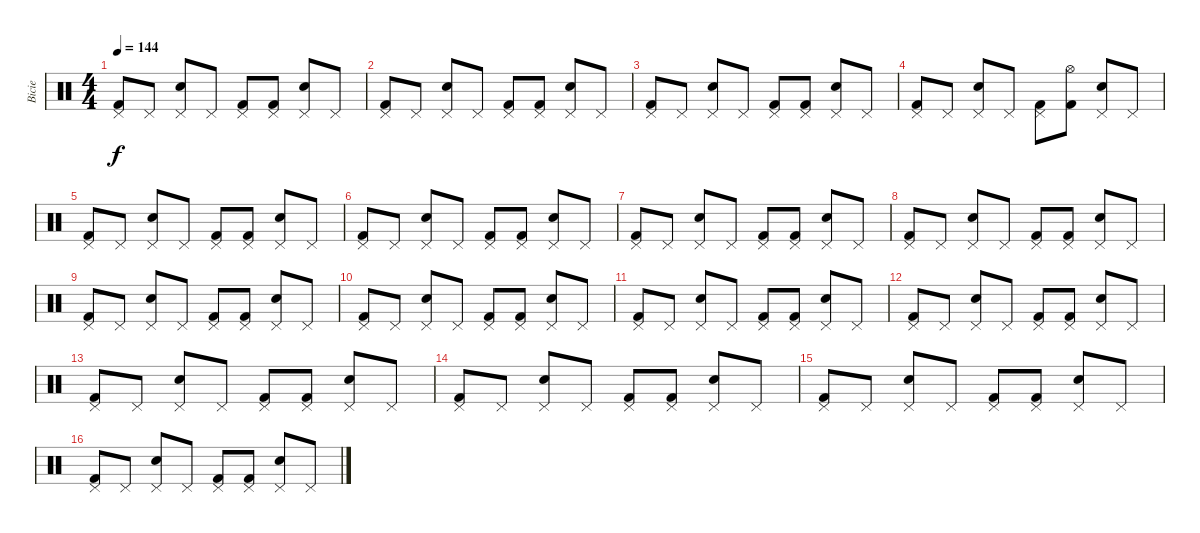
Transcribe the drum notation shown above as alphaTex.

\track ("Bicie" "Bicie") {instrument percussion}
\staff {score}
\articulation defaults
\ts (4 4)
\tempo 144
\clef neutral
\ks c
("Pedal Hi-Hat (hit)" "Kick (hit) 2").8{dy f} "Pedal Hi-Hat (hit)".8 ("Pedal Hi-Hat (hit)" "Snare (hit) 2").8 "Pedal Hi-Hat (hit)".8 ("Pedal Hi-Hat (hit)" "Kick (hit) 2").8 ("Pedal Hi-Hat (hit)" "Kick (hit) 2").8 ("Pedal Hi-Hat (hit)" "Snare (hit) 2").8 "Pedal Hi-Hat (hit)".8 |
("Pedal Hi-Hat (hit)" "Kick (hit) 2").8 "Pedal Hi-Hat (hit)".8 ("Pedal Hi-Hat (hit)" "Snare (hit) 2").8 "Pedal Hi-Hat (hit)".8 ("Pedal Hi-Hat (hit)" "Kick (hit) 2").8 ("Pedal Hi-Hat (hit)" "Kick (hit) 2").8 ("Pedal Hi-Hat (hit)" "Snare (hit) 2").8 "Pedal Hi-Hat (hit)".8 |
("Pedal Hi-Hat (hit)" "Kick (hit) 2").8 "Pedal Hi-Hat (hit)".8 ("Pedal Hi-Hat (hit)" "Snare (hit) 2").8 "Pedal Hi-Hat (hit)".8 ("Pedal Hi-Hat (hit)" "Kick (hit) 2").8 ("Pedal Hi-Hat (hit)" "Kick (hit) 2").8 ("Pedal Hi-Hat (hit)" "Snare (hit) 2").8 "Pedal Hi-Hat (hit)".8 |
("Pedal Hi-Hat (hit)" "Kick (hit) 2").8 "Pedal Hi-Hat (hit)".8 ("Pedal Hi-Hat (hit)" "Snare (hit) 2").8 "Pedal Hi-Hat (hit)".8 ("Pedal Hi-Hat (hit)" "Kick (hit) 2").8 ("Hi-Hat (open)" "Kick (hit) 2").8 ("Pedal Hi-Hat (hit)" "Snare (hit) 2").8 "Pedal Hi-Hat (hit)".8 |
("Pedal Hi-Hat (hit)" "Kick (hit) 2").8 "Pedal Hi-Hat (hit)".8 ("Pedal Hi-Hat (hit)" "Snare (hit) 2").8 "Pedal Hi-Hat (hit)".8 ("Pedal Hi-Hat (hit)" "Kick (hit) 2").8 ("Pedal Hi-Hat (hit)" "Kick (hit) 2").8 ("Pedal Hi-Hat (hit)" "Snare (hit) 2").8 "Pedal Hi-Hat (hit)".8 |
("Pedal Hi-Hat (hit)" "Kick (hit) 2").8 "Pedal Hi-Hat (hit)".8 ("Pedal Hi-Hat (hit)" "Snare (hit) 2").8 "Pedal Hi-Hat (hit)".8 ("Pedal Hi-Hat (hit)" "Kick (hit) 2").8 ("Pedal Hi-Hat (hit)" "Kick (hit) 2").8 ("Pedal Hi-Hat (hit)" "Snare (hit) 2").8 "Pedal Hi-Hat (hit)".8 |
("Pedal Hi-Hat (hit)" "Kick (hit) 2").8 "Pedal Hi-Hat (hit)".8 ("Pedal Hi-Hat (hit)" "Snare (hit) 2").8 "Pedal Hi-Hat (hit)".8 ("Pedal Hi-Hat (hit)" "Kick (hit) 2").8 ("Pedal Hi-Hat (hit)" "Kick (hit) 2").8 ("Pedal Hi-Hat (hit)" "Snare (hit) 2").8 "Pedal Hi-Hat (hit)".8 |
("Pedal Hi-Hat (hit)" "Kick (hit) 2").8 "Pedal Hi-Hat (hit)".8 ("Pedal Hi-Hat (hit)" "Snare (hit) 2").8 "Pedal Hi-Hat (hit)".8 ("Pedal Hi-Hat (hit)" "Kick (hit) 2").8 ("Pedal Hi-Hat (hit)" "Kick (hit) 2").8 ("Pedal Hi-Hat (hit)" "Snare (hit) 2").8 "Pedal Hi-Hat (hit)".8 |
("Pedal Hi-Hat (hit)" "Kick (hit) 2").8 "Pedal Hi-Hat (hit)".8 ("Pedal Hi-Hat (hit)" "Snare (hit) 2").8 "Pedal Hi-Hat (hit)".8 ("Pedal Hi-Hat (hit)" "Kick (hit) 2").8 ("Pedal Hi-Hat (hit)" "Kick (hit) 2").8 ("Pedal Hi-Hat (hit)" "Snare (hit) 2").8 "Pedal Hi-Hat (hit)".8 |
("Pedal Hi-Hat (hit)" "Kick (hit) 2").8 "Pedal Hi-Hat (hit)".8 ("Pedal Hi-Hat (hit)" "Snare (hit) 2").8 "Pedal Hi-Hat (hit)".8 ("Pedal Hi-Hat (hit)" "Kick (hit) 2").8 ("Pedal Hi-Hat (hit)" "Kick (hit) 2").8 ("Pedal Hi-Hat (hit)" "Snare (hit) 2").8 "Pedal Hi-Hat (hit)".8 |
("Pedal Hi-Hat (hit)" "Kick (hit) 2").8 "Pedal Hi-Hat (hit)".8 ("Pedal Hi-Hat (hit)" "Snare (hit) 2").8 "Pedal Hi-Hat (hit)".8 ("Pedal Hi-Hat (hit)" "Kick (hit) 2").8 ("Pedal Hi-Hat (hit)" "Kick (hit) 2").8 ("Pedal Hi-Hat (hit)" "Snare (hit) 2").8 "Pedal Hi-Hat (hit)".8 |
("Pedal Hi-Hat (hit)" "Kick (hit) 2").8 "Pedal Hi-Hat (hit)".8 ("Pedal Hi-Hat (hit)" "Snare (hit) 2").8 "Pedal Hi-Hat (hit)".8 ("Pedal Hi-Hat (hit)" "Kick (hit) 2").8 ("Pedal Hi-Hat (hit)" "Kick (hit) 2").8 ("Pedal Hi-Hat (hit)" "Snare (hit) 2").8 "Pedal Hi-Hat (hit)".8 |
("Pedal Hi-Hat (hit)" "Kick (hit) 2").8 "Pedal Hi-Hat (hit)".8 ("Pedal Hi-Hat (hit)" "Snare (hit) 2").8 "Pedal Hi-Hat (hit)".8 ("Pedal Hi-Hat (hit)" "Kick (hit) 2").8 ("Pedal Hi-Hat (hit)" "Kick (hit) 2").8 ("Pedal Hi-Hat (hit)" "Snare (hit) 2").8 "Pedal Hi-Hat (hit)".8 |
("Pedal Hi-Hat (hit)" "Kick (hit) 2").8 "Pedal Hi-Hat (hit)".8 ("Pedal Hi-Hat (hit)" "Snare (hit) 2").8 "Pedal Hi-Hat (hit)".8 ("Pedal Hi-Hat (hit)" "Kick (hit) 2").8 ("Pedal Hi-Hat (hit)" "Kick (hit) 2").8 ("Pedal Hi-Hat (hit)" "Snare (hit) 2").8 "Pedal Hi-Hat (hit)".8 |
("Pedal Hi-Hat (hit)" "Kick (hit) 2").8 "Pedal Hi-Hat (hit)".8 ("Pedal Hi-Hat (hit)" "Snare (hit) 2").8 "Pedal Hi-Hat (hit)".8 ("Pedal Hi-Hat (hit)" "Kick (hit) 2").8 ("Pedal Hi-Hat (hit)" "Kick (hit) 2").8 ("Pedal Hi-Hat (hit)" "Snare (hit) 2").8 "Pedal Hi-Hat (hit)".8 |
("Pedal Hi-Hat (hit)" "Kick (hit) 2").8 "Pedal Hi-Hat (hit)".8 ("Pedal Hi-Hat (hit)" "Snare (hit) 2").8 "Pedal Hi-Hat (hit)".8 ("Pedal Hi-Hat (hit)" "Kick (hit) 2").8 ("Pedal Hi-Hat (hit)" "Kick (hit) 2").8 ("Pedal Hi-Hat (hit)" "Snare (hit) 2").8 "Pedal Hi-Hat (hit)".8
